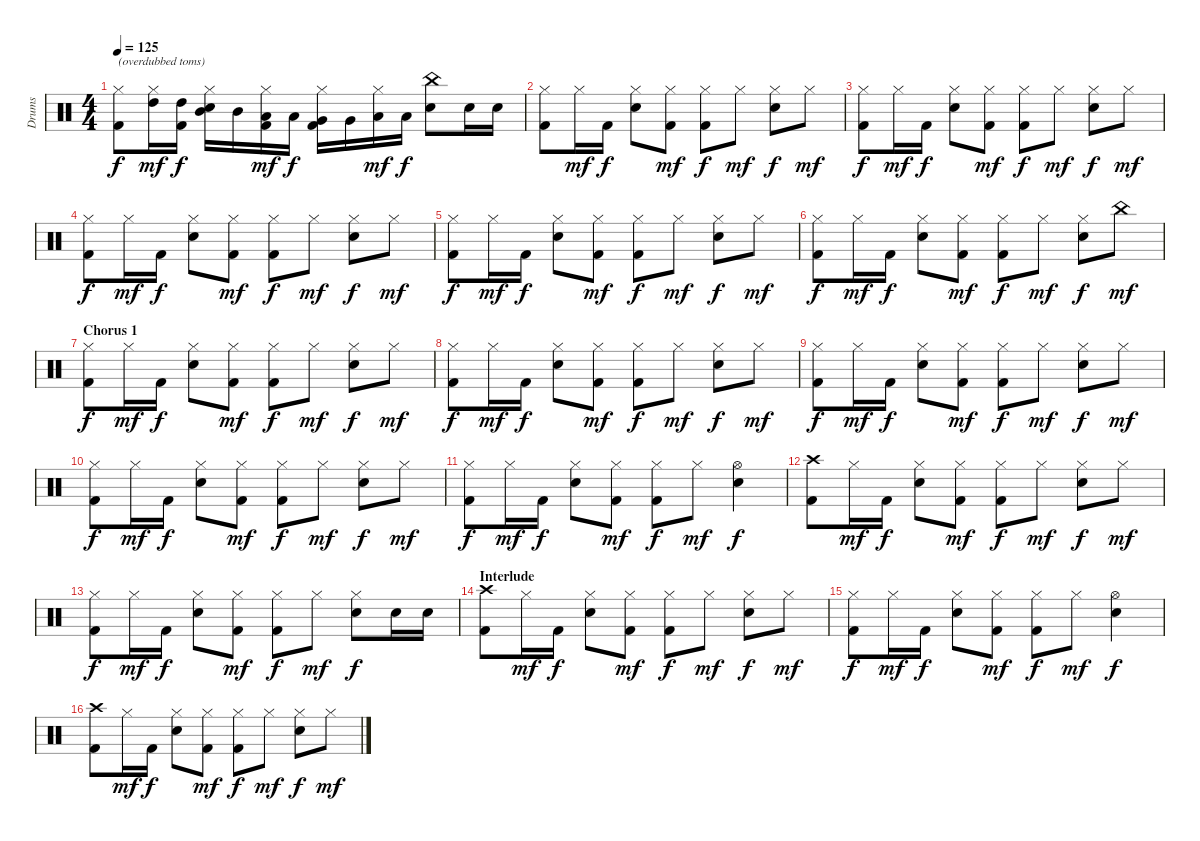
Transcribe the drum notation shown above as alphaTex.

\track ("Drums" "Drums") {instrument percussion}
\staff {score}
\articulation defaults
\ts (4 4)
\tempo 125
\clef neutral
\ks c
("Hi-Hat (closed)" "Kick (hit) 2").8{txt "(overdubbed toms)" dy f} ("Hi-Hat (closed)" "High Tom (hit)").16{dy mf} ("High Tom (hit)" "Kick (hit) 2").16{dy f} ("Hi-Hat (closed)" "Mid Tom (hit)" "Electric Snare (hit)").16 "Mid Tom (hit)".16 ("Hi-Hat (closed)" "Low Tom (hit)" "Kick (hit) 2").16{dy mf} "Low Tom (hit)".16{dy f} ("Hi-Hat (closed)" "Very Low Tom (hit)" "Kick (hit) 2").16 "Very Low Tom (hit)".16 ("Hi-Hat (closed)" "Low Floor Tom (hit)").16{dy mf} "Low Floor Tom (hit)".16{dy f} ("China (hit)" "Electric Snare (hit)").8 "Electric Snare (hit)".16 "Electric Snare (hit)".16 |
("Hi-Hat (closed)" "Kick (hit) 2").8 "Hi-Hat (closed)".16{dy mf} "Kick (hit) 2".16{dy f} ("Hi-Hat (closed)" "Electric Snare (hit)").8 ("Hi-Hat (closed)" "Kick (hit) 2").8{dy mf} ("Hi-Hat (closed)" "Kick (hit) 2").8{dy f} "Hi-Hat (closed)".8{dy mf} ("Hi-Hat (closed)" "Electric Snare (hit)").8{dy f} "Hi-Hat (closed)".8{dy mf} |
("Hi-Hat (closed)" "Kick (hit) 2").8{dy f} "Hi-Hat (closed)".16{dy mf} "Kick (hit) 2".16{dy f} ("Hi-Hat (closed)" "Electric Snare (hit)").8 ("Hi-Hat (closed)" "Kick (hit) 2").8{dy mf} ("Hi-Hat (closed)" "Kick (hit) 2").8{dy f} "Hi-Hat (closed)".8{dy mf} ("Hi-Hat (closed)" "Electric Snare (hit)").8{dy f} "Hi-Hat (closed)".8{dy mf} |
("Hi-Hat (closed)" "Kick (hit) 2").8{dy f} "Hi-Hat (closed)".16{dy mf} "Kick (hit) 2".16{dy f} ("Hi-Hat (closed)" "Electric Snare (hit)").8 ("Hi-Hat (closed)" "Kick (hit) 2").8{dy mf} ("Hi-Hat (closed)" "Kick (hit) 2").8{dy f} "Hi-Hat (closed)".8{dy mf} ("Hi-Hat (closed)" "Electric Snare (hit)").8{dy f} "Hi-Hat (closed)".8{dy mf} |
("Hi-Hat (closed)" "Kick (hit) 2").8{dy f} "Hi-Hat (closed)".16{dy mf} "Kick (hit) 2".16{dy f} ("Hi-Hat (closed)" "Electric Snare (hit)").8 ("Hi-Hat (closed)" "Kick (hit) 2").8{dy mf} ("Hi-Hat (closed)" "Kick (hit) 2").8{dy f} "Hi-Hat (closed)".8{dy mf} ("Hi-Hat (closed)" "Electric Snare (hit)").8{dy f} "Hi-Hat (closed)".8{dy mf} |
("Hi-Hat (closed)" "Kick (hit) 2").8{dy f} "Hi-Hat (closed)".16{dy mf} "Kick (hit) 2".16{dy f} ("Hi-Hat (closed)" "Electric Snare (hit)").8 ("Hi-Hat (closed)" "Kick (hit) 2").8{dy mf} ("Hi-Hat (closed)" "Kick (hit) 2").8{dy f} "Hi-Hat (closed)".8{dy mf} ("Hi-Hat (closed)" "Electric Snare (hit)").8{dy f} "China (hit)".8{dy mf} |
\section ("" "Chorus 1")
("Hi-Hat (closed)" "Kick (hit) 2").8{dy f} "Hi-Hat (closed)".16{dy mf} "Kick (hit) 2".16{dy f} ("Hi-Hat (closed)" "Electric Snare (hit)").8 ("Hi-Hat (closed)" "Kick (hit) 2").8{dy mf} ("Hi-Hat (closed)" "Kick (hit) 2").8{dy f} "Hi-Hat (closed)".8{dy mf} ("Hi-Hat (closed)" "Electric Snare (hit)").8{dy f} "Hi-Hat (closed)".8{dy mf} |
("Hi-Hat (closed)" "Kick (hit) 2").8{dy f} "Hi-Hat (closed)".16{dy mf} "Kick (hit) 2".16{dy f} ("Hi-Hat (closed)" "Electric Snare (hit)").8 ("Hi-Hat (closed)" "Kick (hit) 2").8{dy mf} ("Hi-Hat (closed)" "Kick (hit) 2").8{dy f} "Hi-Hat (closed)".8{dy mf} ("Hi-Hat (closed)" "Electric Snare (hit)").8{dy f} "Hi-Hat (closed)".8{dy mf} |
("Hi-Hat (closed)" "Kick (hit) 2").8{dy f} "Hi-Hat (closed)".16{dy mf} "Kick (hit) 2".16{dy f} ("Hi-Hat (closed)" "Electric Snare (hit)").8 ("Hi-Hat (closed)" "Kick (hit) 2").8{dy mf} ("Hi-Hat (closed)" "Kick (hit) 2").8{dy f} "Hi-Hat (closed)".8{dy mf} ("Hi-Hat (closed)" "Electric Snare (hit)").8{dy f} "Hi-Hat (closed)".8{dy mf} |
("Hi-Hat (closed)" "Kick (hit) 2").8{dy f} "Hi-Hat (closed)".16{dy mf} "Kick (hit) 2".16{dy f} ("Hi-Hat (closed)" "Electric Snare (hit)").8 ("Hi-Hat (closed)" "Kick (hit) 2").8{dy mf} ("Hi-Hat (closed)" "Kick (hit) 2").8{dy f} "Hi-Hat (closed)".8{dy mf} ("Hi-Hat (closed)" "Electric Snare (hit)").8{dy f} "Hi-Hat (closed)".8{dy mf} |
("Hi-Hat (closed)" "Kick (hit) 2").8{dy f} "Hi-Hat (closed)".16{dy mf} "Kick (hit) 2".16{dy f} ("Hi-Hat (closed)" "Electric Snare (hit)").8 ("Hi-Hat (closed)" "Kick (hit) 2").8{dy mf} ("Hi-Hat (closed)" "Kick (hit) 2").8{dy f} "Hi-Hat (closed)".8{dy mf} ("Hi-Hat (open)" "Electric Snare (hit)").4{dy f} |
("Crash high (hit)" "Kick (hit) 2").8 "Hi-Hat (closed)".16{dy mf} "Kick (hit) 2".16{dy f} ("Hi-Hat (closed)" "Electric Snare (hit)").8 ("Hi-Hat (closed)" "Kick (hit) 2").8{dy mf} ("Hi-Hat (closed)" "Kick (hit) 2").8{dy f} "Hi-Hat (closed)".8{dy mf} ("Hi-Hat (closed)" "Electric Snare (hit)").8{dy f} "Hi-Hat (closed)".8{dy mf} |
("Hi-Hat (closed)" "Kick (hit) 2").8{dy f} "Hi-Hat (closed)".16{dy mf} "Kick (hit) 2".16{dy f} ("Hi-Hat (closed)" "Electric Snare (hit)").8 ("Hi-Hat (closed)" "Kick (hit) 2").8{dy mf} ("Hi-Hat (closed)" "Kick (hit) 2").8{dy f} "Hi-Hat (closed)".8{dy mf} ("Hi-Hat (closed)" "Electric Snare (hit)").8{dy f} "Electric Snare (hit)".16 "Electric Snare (hit)".16 |
\section ("" "Interlude")
("Crash high (hit)" "Kick (hit) 2").8 "Hi-Hat (closed)".16{dy mf} "Kick (hit) 2".16{dy f} ("Hi-Hat (closed)" "Electric Snare (hit)").8 ("Hi-Hat (closed)" "Kick (hit) 2").8{dy mf} ("Hi-Hat (closed)" "Kick (hit) 2").8{dy f} "Hi-Hat (closed)".8{dy mf} ("Hi-Hat (closed)" "Electric Snare (hit)").8{dy f} "Hi-Hat (closed)".8{dy mf} |
("Hi-Hat (closed)" "Kick (hit) 2").8{dy f} "Hi-Hat (closed)".16{dy mf} "Kick (hit) 2".16{dy f} ("Hi-Hat (closed)" "Electric Snare (hit)").8 ("Hi-Hat (closed)" "Kick (hit) 2").8{dy mf} ("Hi-Hat (closed)" "Kick (hit) 2").8{dy f} "Hi-Hat (closed)".8{dy mf} ("Hi-Hat (open)" "Electric Snare (hit)").4{dy f} |
("Crash high (hit)" "Kick (hit) 2").8 "Hi-Hat (closed)".16{dy mf} "Kick (hit) 2".16{dy f} ("Hi-Hat (closed)" "Electric Snare (hit)").8 ("Hi-Hat (closed)" "Kick (hit) 2").8{dy mf} ("Hi-Hat (closed)" "Kick (hit) 2").8{dy f} "Hi-Hat (closed)".8{dy mf} ("Hi-Hat (closed)" "Electric Snare (hit)").8{dy f} "Hi-Hat (closed)".8{dy mf}
